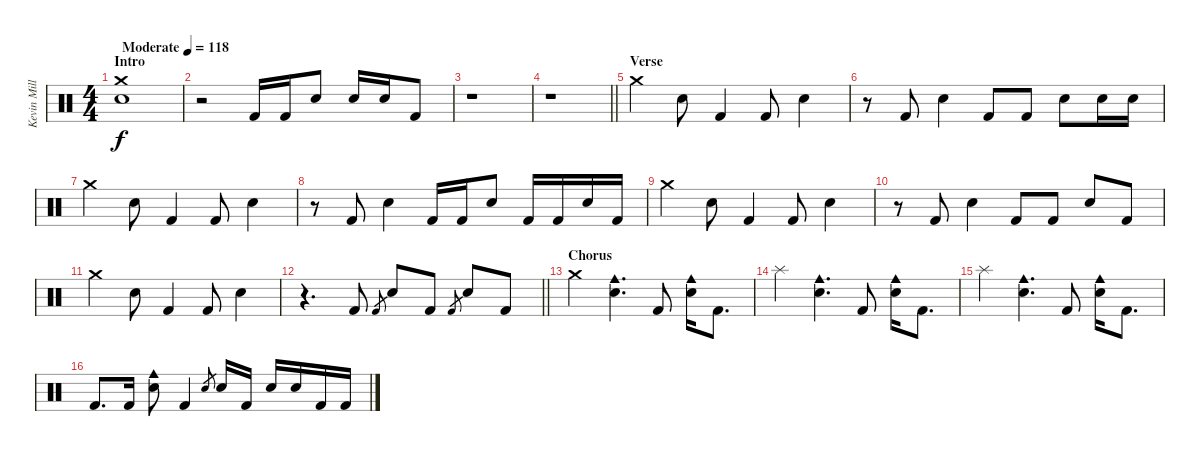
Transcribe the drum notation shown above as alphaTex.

\track ("Kevin Miller (Drums)" "Kevin Mill") {instrument percussion}
\staff {score}
\articulation defaults
\ts (4 4)
\section ("" "Intro")
\tempo (118 "Moderate")
\clef neutral
\ks c
("Crash medium (hit)" "Electric Snare (hit)").1{dy f} |
r.2 "Kick (hit) 2".16 "Kick (hit) 2".16 "Electric Snare (hit)".8 "Electric Snare (hit)".16 "Electric Snare (hit)".16 "Kick (hit) 2".8 |
r.1 |
\barLineRight lightlight
r.1 |
\section ("" "Verse")
"Crash medium (hit)".4 "Electric Snare (hit)".8 "Kick (hit) 2".4 "Kick (hit) 2".8 "Electric Snare (hit)".4 |
r.8 "Kick (hit) 2".8 "Electric Snare (hit)".4 "Kick (hit) 2".8 "Kick (hit) 2".8 "Electric Snare (hit)".8 "Electric Snare (hit)".16 "Electric Snare (hit)".16 |
"Crash medium (hit)".4 "Electric Snare (hit)".8 "Kick (hit) 2".4 "Kick (hit) 2".8 "Electric Snare (hit)".4 |
r.8 "Kick (hit) 2".8 "Electric Snare (hit)".4 "Kick (hit) 2".16 "Kick (hit) 2".16 "Electric Snare (hit)".8 "Kick (hit) 2".16 "Kick (hit) 2".16 "Electric Snare (hit)".16 "Kick (hit) 2".16 |
"Crash medium (hit)".4 "Electric Snare (hit)".8 "Kick (hit) 2".4 "Kick (hit) 2".8 "Electric Snare (hit)".4 |
r.8 "Kick (hit) 2".8 "Electric Snare (hit)".4 "Kick (hit) 2".8 "Kick (hit) 2".8 "Electric Snare (hit)".8 "Kick (hit) 2".8 |
"Crash medium (hit)".4 "Electric Snare (hit)".8 "Kick (hit) 2".4 "Kick (hit) 2".8 "Electric Snare (hit)".4 |
\barLineRight lightlight
r.4{d} "Kick (hit) 2".8 "Kick (hit) 2".8{gr} "Electric Snare (hit)".8 "Kick (hit) 2".8 "Kick (hit) 2".8{gr} "Electric Snare (hit)".8 "Kick (hit) 2".8 |
\section ("" "Chorus")
"Crash medium (hit)".4 ("Electric Snare (hit)" "Cowbell medium (hit)").4{d} "Kick (hit) 2".8 ("Electric Snare (hit)" "Cowbell medium (hit)").16 "Kick (hit) 2".8{d} |
"Splash (hit)".4 ("Electric Snare (hit)" "Cowbell medium (hit)").4{d} "Kick (hit) 2".8 ("Electric Snare (hit)" "Cowbell medium (hit)").16 "Kick (hit) 2".8{d} |
"Splash (hit)".4 ("Electric Snare (hit)" "Cowbell medium (hit)").4{d} "Kick (hit) 2".8 ("Electric Snare (hit)" "Cowbell medium (hit)").16 "Kick (hit) 2".8{d} |
"Kick (hit) 2".8{d} "Kick (hit) 2".16 ("Electric Snare (hit)" "Cowbell medium (hit)").8 "Kick (hit) 2".4 "Electric Snare (hit)".8{gr} "Electric Snare (hit)".16 "Kick (hit) 2".16 "Electric Snare (hit)".16 "Electric Snare (hit)".16 "Kick (hit) 2".16 "Kick (hit) 2".16
